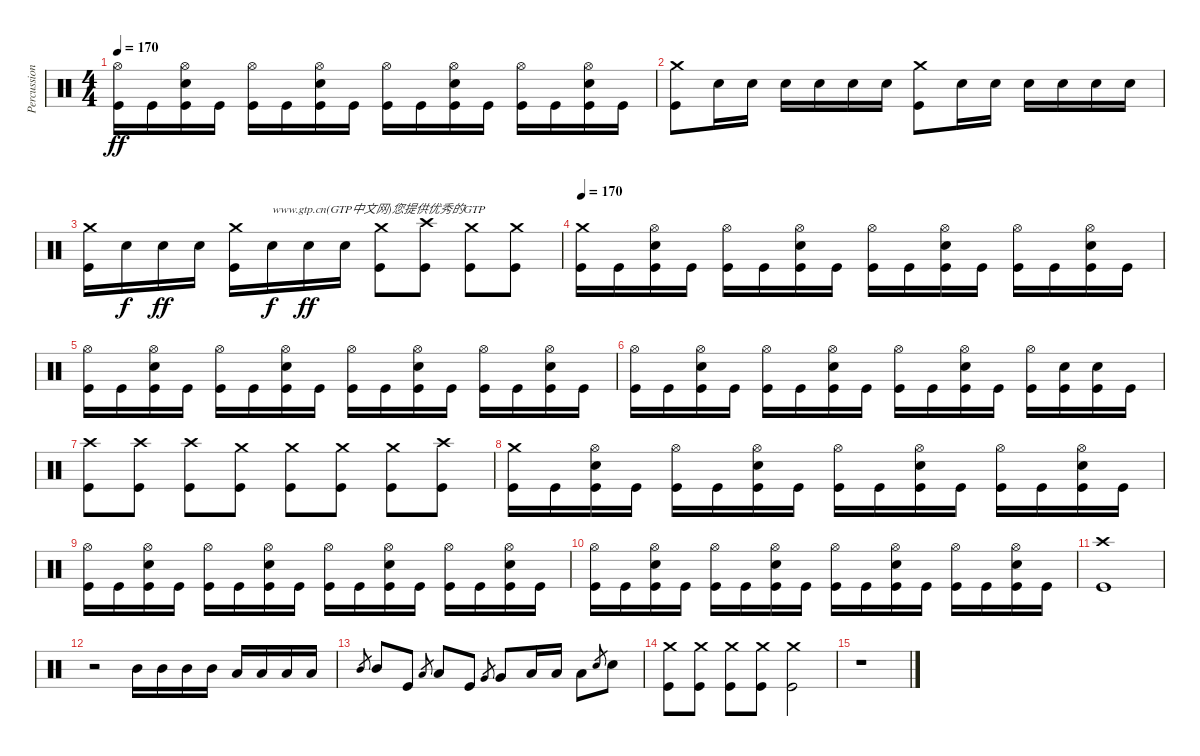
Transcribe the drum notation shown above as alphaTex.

\track ("Percussion" "Percussion") {instrument percussion}
\staff {score}
\articulation defaults
\ts (4 4)
\tempo 170
\clef neutral
\ks c
("Hi-Hat (open)" "Kick (hit)").16{dy ff} "Kick (hit)".16 ("Hi-Hat (open)" "Snare (hit) 2" "Kick (hit)").16 "Kick (hit)".16 ("Hi-Hat (open)" "Kick (hit)").16 "Kick (hit)".16 ("Hi-Hat (open)" "Snare (hit) 2" "Kick (hit)").16 "Kick (hit)".16 ("Hi-Hat (open)" "Kick (hit)").16 "Kick (hit)".16 ("Hi-Hat (open)" "Snare (hit) 2" "Kick (hit)").16 "Kick (hit)".16 ("Hi-Hat (open)" "Kick (hit)").16 "Kick (hit)".16 ("Hi-Hat (open)" "Snare (hit) 2" "Kick (hit)").16 "Kick (hit)".16 |
("Crash medium (hit)" "Kick (hit)").8 "Snare (hit) 2".16 "Snare (hit) 2".16 "Snare (hit) 2".16 "Snare (hit) 2".16 "Snare (hit) 2".16 "Snare (hit) 2".16 ("Crash medium (hit)" "Kick (hit)").8 "Snare (hit) 2".16 "Snare (hit) 2".16 "Snare (hit) 2".16 "Snare (hit) 2".16 "Snare (hit) 2".16 "Snare (hit) 2".16 |
("Crash medium (hit)" "Kick (hit)").16 "Snare (hit) 2".16{dy f} "Snare (hit) 2".16{dy ff} "Snare (hit) 2".16 ("Crash medium (hit)" "Kick (hit)").16 "Snare (hit) 2".16{txt "www.gtp.cn(GTP中文网)您提供优秀的GTP" dy f} "Snare (hit) 2".16{dy ff} "Snare (hit) 2".16 ("Crash medium (hit)" "Kick (hit)").8 ("Crash high (hit)" "Kick (hit)").8 ("Crash medium (hit)" "Kick (hit)").8 ("Crash medium (hit)" "Kick (hit)").8 |
\tempo 170
("Crash medium (hit)" "Kick (hit)").16 "Kick (hit)".16 ("Hi-Hat (open)" "Snare (hit) 2" "Kick (hit)").16 "Kick (hit)".16 ("Hi-Hat (open)" "Kick (hit)").16 "Kick (hit)".16 ("Hi-Hat (open)" "Snare (hit) 2" "Kick (hit)").16 "Kick (hit)".16 ("Hi-Hat (open)" "Kick (hit)").16 "Kick (hit)".16 ("Hi-Hat (open)" "Snare (hit) 2" "Kick (hit)").16 "Kick (hit)".16 ("Hi-Hat (open)" "Kick (hit)").16 "Kick (hit)".16 ("Hi-Hat (open)" "Snare (hit) 2" "Kick (hit)").16 "Kick (hit)".16 |
("Hi-Hat (open)" "Kick (hit)").16 "Kick (hit)".16 ("Hi-Hat (open)" "Snare (hit) 2" "Kick (hit)").16 "Kick (hit)".16 ("Hi-Hat (open)" "Kick (hit)").16 "Kick (hit)".16 ("Hi-Hat (open)" "Snare (hit) 2" "Kick (hit)").16 "Kick (hit)".16 ("Hi-Hat (open)" "Kick (hit)").16 "Kick (hit)".16 ("Hi-Hat (open)" "Snare (hit) 2" "Kick (hit)").16 "Kick (hit)".16 ("Hi-Hat (open)" "Kick (hit)").16 "Kick (hit)".16 ("Hi-Hat (open)" "Snare (hit) 2" "Kick (hit)").16 "Kick (hit)".16 |
("Hi-Hat (open)" "Kick (hit)").16 "Kick (hit)".16 ("Hi-Hat (open)" "Snare (hit) 2" "Kick (hit)").16 "Kick (hit)".16 ("Hi-Hat (open)" "Kick (hit)").16 "Kick (hit)".16 ("Hi-Hat (open)" "Snare (hit) 2" "Kick (hit)").16 "Kick (hit)".16 ("Hi-Hat (open)" "Kick (hit)").16 "Kick (hit)".16 ("Hi-Hat (open)" "Snare (hit) 2" "Kick (hit)").16 "Kick (hit)".16 ("Hi-Hat (open)" "Kick (hit)").16 ("Snare (hit) 2" "Kick (hit)").16 ("Snare (hit) 2" "Kick (hit)").16 "Kick (hit)".16 |
("Crash high (hit)" "Kick (hit)").8 ("Crash high (hit)" "Kick (hit)").8 ("Crash high (hit)" "Kick (hit)").8 ("Crash medium (hit)" "Kick (hit)").8 ("Crash medium (hit)" "Kick (hit)").8 ("Crash medium (hit)" "Kick (hit)").8 ("Crash medium (hit)" "Kick (hit)").8 ("Crash high (hit)" "Kick (hit)").8 |
("Crash medium (hit)" "Kick (hit)").16 "Kick (hit)".16 ("Hi-Hat (open)" "Snare (hit) 2" "Kick (hit)").16 "Kick (hit)".16 ("Hi-Hat (open)" "Kick (hit)").16 "Kick (hit)".16 ("Hi-Hat (open)" "Snare (hit) 2" "Kick (hit)").16 "Kick (hit)".16 ("Hi-Hat (open)" "Kick (hit)").16 "Kick (hit)".16 ("Hi-Hat (open)" "Snare (hit) 2" "Kick (hit)").16 "Kick (hit)".16 ("Hi-Hat (open)" "Kick (hit)").16 "Kick (hit)".16 ("Hi-Hat (open)" "Snare (hit) 2" "Kick (hit)").16 "Kick (hit)".16 |
("Hi-Hat (open)" "Kick (hit)").16 "Kick (hit)".16 ("Hi-Hat (open)" "Snare (hit) 2" "Kick (hit)").16 "Kick (hit)".16 ("Hi-Hat (open)" "Kick (hit)").16 "Kick (hit)".16 ("Hi-Hat (open)" "Snare (hit) 2" "Kick (hit)").16 "Kick (hit)".16 ("Hi-Hat (open)" "Kick (hit)").16 "Kick (hit)".16 ("Hi-Hat (open)" "Snare (hit) 2" "Kick (hit)").16 "Kick (hit)".16 ("Hi-Hat (open)" "Kick (hit)").16 "Kick (hit)".16 ("Hi-Hat (open)" "Snare (hit) 2" "Kick (hit)").16 "Kick (hit)".16 |
("Hi-Hat (open)" "Kick (hit)").16 "Kick (hit)".16 ("Hi-Hat (open)" "Snare (hit) 2" "Kick (hit)").16 "Kick (hit)".16 ("Hi-Hat (open)" "Kick (hit)").16 "Kick (hit)".16 ("Hi-Hat (open)" "Snare (hit) 2" "Kick (hit)").16 "Kick (hit)".16 ("Hi-Hat (open)" "Kick (hit)").16 "Kick (hit)".16 ("Hi-Hat (open)" "Snare (hit) 2" "Kick (hit)").16 "Kick (hit)".16 ("Hi-Hat (open)" "Kick (hit)").16 "Kick (hit)".16 ("Hi-Hat (open)" "Snare (hit) 2" "Kick (hit)").16 "Kick (hit)".16 |
("Crash high (hit)" "Kick (hit)").1 |
r.2 "Mid Tom (hit)".16 "Mid Tom (hit)".16 "Mid Tom (hit)".16 "Mid Tom (hit)".16 "Low Tom (hit)".16 "Low Tom (hit)".16 "Low Tom (hit)".16 "Low Tom (hit)".16 |
"Mid Tom (hit)".8{gr} "Mid Tom (hit)".8 "Kick (hit)".8 "Low Tom (hit)".8{gr} "Low Tom (hit)".8 "Kick (hit)".8 "Very Low Tom (hit)".8{gr} "Very Low Tom (hit)".8 "Low Floor Tom (hit)".16 "Low Floor Tom (hit)".16 "Low Floor Tom (hit)".8 "Snare (hit) 2".8{gr} "Snare (hit) 2".8 |
("Crash medium (hit)" "Kick (hit)").8 ("Crash medium (hit)" "Kick (hit)").8 ("Crash medium (hit)" "Kick (hit)").8 ("Crash medium (hit)" "Kick (hit)").8 ("Crash medium (hit)" "Kick (hit)").2 |
r.1
